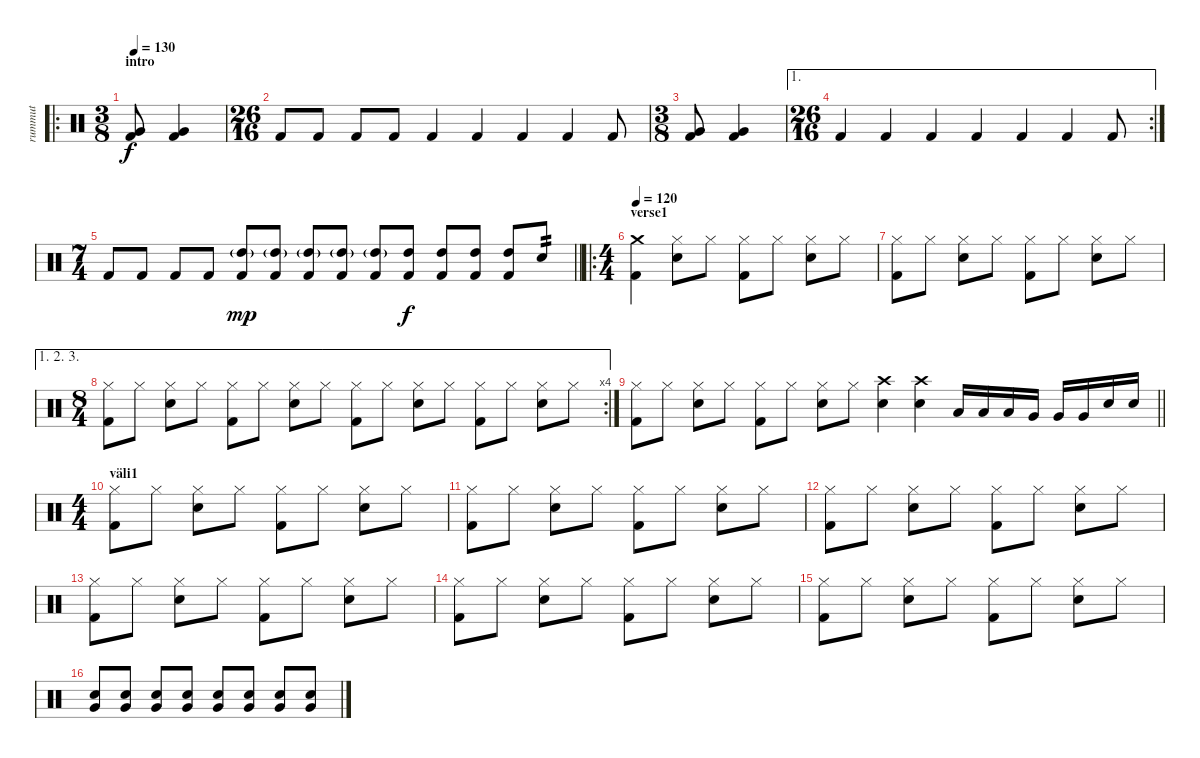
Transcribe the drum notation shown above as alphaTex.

\track ("rummut" "rummut") {instrument percussion}
\staff {score}
\articulation defaults
\ro
\ts (3 8)
\section ("" "intro")
\tempo 130
\clef neutral
\ks c
("Kick (hit) 2" "Very Low Tom (hit)").8{dy f} ("Kick (hit) 2" "Very Low Tom (hit)").4 |
\ts (26 16)
"Kick (hit) 2".8 "Kick (hit) 2".8 "Kick (hit) 2".8 "Kick (hit) 2".8 "Kick (hit) 2".4 "Kick (hit) 2".4 "Kick (hit) 2".4 "Kick (hit) 2".4 "Kick (hit) 2".8 |
\ts (3 8)
("Kick (hit) 2" "Very Low Tom (hit)").8 ("Kick (hit) 2" "Very Low Tom (hit)").4 |
\ae 1
\rc 2
\ts (26 16)
"Kick (hit) 2".4 "Kick (hit) 2".4 "Kick (hit) 2".4 "Kick (hit) 2".4 "Kick (hit) 2".4 "Kick (hit) 2".4 "Kick (hit) 2".8 |
\ts (7 4)
\barLineRight lightlight "Kick (hit) 2".8 "Kick (hit) 2".8 "Kick (hit) 2".8 "Kick (hit) 2".8
("Kick (hit) 2" "High Tom (hit)"{g}).8{dy mp} ("Kick (hit) 2" "High Tom (hit)"{g}).8 ("Kick (hit) 2" "High Tom (hit)"{g}).8 ("Kick (hit) 2" "High Tom (hit)"{g}).8 ("Kick (hit) 2" "High Tom (hit)"{g}).8 ("Kick (hit) 2" "High Tom (hit)").8{dy f} ("Kick (hit) 2" "High Tom (hit)").8 ("Kick (hit) 2" "High Tom (hit)").8 ("Kick (hit) 2" "High Tom (hit)").8 "Electric Snare (hit)".8{tp 2} |
\ro
\ts (4 4)
\section ("" "verse1")
\tempo 120
("Crash medium (hit)" "Kick (hit) 2").4 ("Hi-Hat (closed)" "Electric Snare (hit)").8 "Hi-Hat (closed)".8 ("Hi-Hat (closed)" "Kick (hit) 2").8 "Hi-Hat (closed)".8 ("Hi-Hat (closed)" "Electric Snare (hit)").8 "Hi-Hat (closed)".8 |
("Hi-Hat (closed)" "Kick (hit) 2").8 "Hi-Hat (closed)".8 ("Hi-Hat (closed)" "Electric Snare (hit)").8 "Hi-Hat (closed)".8 ("Hi-Hat (closed)" "Kick (hit) 2").8 "Hi-Hat (closed)".8 ("Hi-Hat (closed)" "Electric Snare (hit)").8 "Hi-Hat (closed)".8 |
\ae (1 2 3)
\rc 4
\ts (8 4)
("Hi-Hat (closed)" "Kick (hit) 2").8 "Hi-Hat (closed)".8 ("Hi-Hat (closed)" "Electric Snare (hit)").8 "Hi-Hat (closed)".8 ("Hi-Hat (closed)" "Kick (hit) 2").8 "Hi-Hat (closed)".8 ("Hi-Hat (closed)" "Electric Snare (hit)").8 "Hi-Hat (closed)".8 ("Hi-Hat (closed)" "Kick (hit) 2").8 "Hi-Hat (closed)".8 ("Hi-Hat (closed)" "Electric Snare (hit)").8 "Hi-Hat (closed)".8 ("Hi-Hat (closed)" "Kick (hit) 2").8 "Hi-Hat (closed)".8 ("Hi-Hat (closed)" "Electric Snare (hit)").8 "Hi-Hat (closed)".8 |
\barLineRight lightlight
("Hi-Hat (closed)" "Kick (hit) 2").8 "Hi-Hat (closed)".8 ("Hi-Hat (closed)" "Electric Snare (hit)").8 "Hi-Hat (closed)".8 ("Hi-Hat (closed)" "Kick (hit) 2").8 "Hi-Hat (closed)".8 ("Hi-Hat (closed)" "Electric Snare (hit)").8 "Hi-Hat (closed)".8 ("Crash high (hit)" "Electric Snare (hit)").4 ("Crash high (hit)" "Electric Snare (hit)").4 "Low Tom (hit)".16 "Low Tom (hit)".16 "Low Tom (hit)".16 "Very Low Tom (hit)".16 "Very Low Tom (hit)".16 "Very Low Tom (hit)".16 "Electric Snare (hit)".16 "Electric Snare (hit)".16 |
\ts (4 4)
\section ("" "väli1")
("Hi-Hat (closed)" "Kick (hit) 2").8 "Hi-Hat (closed)".8 ("Hi-Hat (closed)" "Electric Snare (hit)").8 "Hi-Hat (closed)".8 ("Hi-Hat (closed)" "Kick (hit) 2").8 "Hi-Hat (closed)".8 ("Hi-Hat (closed)" "Electric Snare (hit)").8 "Hi-Hat (closed)".8 |
("Hi-Hat (closed)" "Kick (hit) 2").8 "Hi-Hat (closed)".8 ("Hi-Hat (closed)" "Electric Snare (hit)").8 "Hi-Hat (closed)".8 ("Hi-Hat (closed)" "Kick (hit) 2").8 "Hi-Hat (closed)".8 ("Hi-Hat (closed)" "Electric Snare (hit)").8 "Hi-Hat (closed)".8 |
("Hi-Hat (closed)" "Kick (hit) 2").8 "Hi-Hat (closed)".8 ("Hi-Hat (closed)" "Electric Snare (hit)").8 "Hi-Hat (closed)".8 ("Hi-Hat (closed)" "Kick (hit) 2").8 "Hi-Hat (closed)".8 ("Hi-Hat (closed)" "Electric Snare (hit)").8 "Hi-Hat (closed)".8 |
("Hi-Hat (closed)" "Kick (hit) 2").8 "Hi-Hat (closed)".8 ("Hi-Hat (closed)" "Electric Snare (hit)").8 "Hi-Hat (closed)".8 ("Hi-Hat (closed)" "Kick (hit) 2").8 "Hi-Hat (closed)".8 ("Hi-Hat (closed)" "Electric Snare (hit)").8 "Hi-Hat (closed)".8 |
("Hi-Hat (closed)" "Kick (hit) 2").8 "Hi-Hat (closed)".8 ("Hi-Hat (closed)" "Electric Snare (hit)").8 "Hi-Hat (closed)".8 ("Hi-Hat (closed)" "Kick (hit) 2").8 "Hi-Hat (closed)".8 ("Hi-Hat (closed)" "Electric Snare (hit)").8 "Hi-Hat (closed)".8 |
("Hi-Hat (closed)" "Kick (hit) 2").8 "Hi-Hat (closed)".8 ("Hi-Hat (closed)" "Electric Snare (hit)").8 "Hi-Hat (closed)".8 ("Hi-Hat (closed)" "Kick (hit) 2").8 "Hi-Hat (closed)".8 ("Hi-Hat (closed)" "Electric Snare (hit)").8 "Hi-Hat (closed)".8 |
("Very Low Tom (hit)" "Electric Snare (hit)").8 ("Very Low Tom (hit)" "Electric Snare (hit)").8 ("Very Low Tom (hit)" "Electric Snare (hit)").8 ("Very Low Tom (hit)" "Electric Snare (hit)").8 ("Very Low Tom (hit)" "Electric Snare (hit)").8 ("Very Low Tom (hit)" "Electric Snare (hit)").8 ("Very Low Tom (hit)" "Electric Snare (hit)").8 ("Very Low Tom (hit)" "Electric Snare (hit)").8
